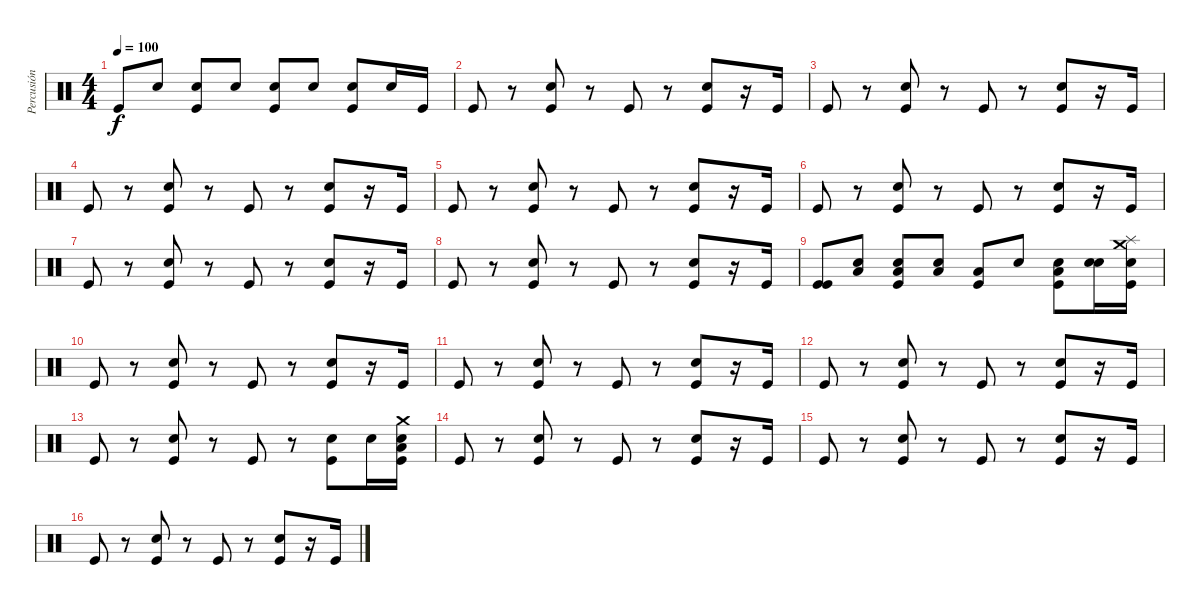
\track ("Percusión" "Percusión") {instrument percussion}
\staff {score}
\articulation defaults
\ts (4 4)
\tempo 100
\clef neutral
\ks c "Kick (hit)".8{dy f} "Electric Snare (hit)".8
("Kick (hit)" "Electric Snare (hit)").8 "Electric Snare (hit)".8 ("Kick (hit)" "Electric Snare (hit)").8 "Electric Snare (hit)".8 ("Kick (hit)" "Electric Snare (hit)").8 "Electric Snare (hit)".16 "Kick (hit)".16 |
"Kick (hit)".8 r.8 ("Kick (hit)" "Electric Snare (hit)").8 r.8 "Kick (hit)".8 r.8 ("Kick (hit)" "Electric Snare (hit)").8 r.16 "Kick (hit)".16 |
"Kick (hit)".8 r.8 ("Kick (hit)" "Electric Snare (hit)").8 r.8 "Kick (hit)".8 r.8 ("Kick (hit)" "Electric Snare (hit)").8 r.16 "Kick (hit)".16 |
"Kick (hit)".8 r.8 ("Kick (hit)" "Electric Snare (hit)").8 r.8 "Kick (hit)".8 r.8 ("Kick (hit)" "Electric Snare (hit)").8 r.16 "Kick (hit)".16 |
"Kick (hit)".8 r.8 ("Kick (hit)" "Electric Snare (hit)").8 r.8 "Kick (hit)".8 r.8 ("Kick (hit)" "Electric Snare (hit)").8 r.16 "Kick (hit)".16 |
"Kick (hit)".8 r.8 ("Kick (hit)" "Electric Snare (hit)").8 r.8 "Kick (hit)".8 r.8 ("Kick (hit)" "Electric Snare (hit)").8 r.16 "Kick (hit)".16 |
"Kick (hit)".8 r.8 ("Kick (hit)" "Electric Snare (hit)").8 r.8 "Kick (hit)".8 r.8 ("Kick (hit)" "Electric Snare (hit)").8 r.16 "Kick (hit)".16 |
"Kick (hit)".8 r.8 ("Kick (hit)" "Electric Snare (hit)").8 r.8 "Kick (hit)".8 r.8 ("Kick (hit)" "Electric Snare (hit)").8 r.16 "Kick (hit)".16 |
("Kick (hit)" "Kick (hit)").8 ("Low Floor Tom (hit)" "Snare (hit) 2").8 ("Kick (hit)" "Electric Snare (hit)" "Low Floor Tom (hit)").8 ("Low Floor Tom (hit)" "Snare (hit) 2").8 ("Kick (hit)" "Low Floor Tom (hit)").8 "Snare (hit) 2".8 ("Kick (hit)" "Electric Snare (hit)" "Low Floor Tom (hit)").8 ("Electric Snare (hit)" "Snare (hit) 2").16 ("Kick (hit)" "Splash (hit)" "Crash medium (hit)" "Electric Snare (hit)").16 |
"Kick (hit)".8 r.8 ("Kick (hit)" "Electric Snare (hit)").8 r.8 "Kick (hit)".8 r.8 ("Kick (hit)" "Electric Snare (hit)").8 r.16 "Kick (hit)".16 |
"Kick (hit)".8 r.8 ("Kick (hit)" "Electric Snare (hit)").8 r.8 "Kick (hit)".8 r.8 ("Kick (hit)" "Electric Snare (hit)").8 r.16 "Kick (hit)".16 |
"Kick (hit)".8 r.8 ("Kick (hit)" "Electric Snare (hit)").8 r.8 "Kick (hit)".8 r.8 ("Kick (hit)" "Electric Snare (hit)").8 r.16 "Kick (hit)".16 |
"Kick (hit)".8 r.8 ("Kick (hit)" "Electric Snare (hit)").8 r.8 "Kick (hit)".8 r.8 ("Kick (hit)" "Electric Snare (hit)").8 "Snare (hit) 2".16 ("Kick (hit)" "Snare (hit) 2" "Low Floor Tom (hit)" "Crash medium (hit)").16 |
"Kick (hit)".8 r.8 ("Kick (hit)" "Electric Snare (hit)").8 r.8 "Kick (hit)".8 r.8 ("Kick (hit)" "Electric Snare (hit)").8 r.16 "Kick (hit)".16 |
"Kick (hit)".8 r.8 ("Kick (hit)" "Electric Snare (hit)").8 r.8 "Kick (hit)".8 r.8 ("Kick (hit)" "Electric Snare (hit)").8 r.16 "Kick (hit)".16 |
"Kick (hit)".8 r.8 ("Kick (hit)" "Electric Snare (hit)").8 r.8 "Kick (hit)".8 r.8 ("Kick (hit)" "Electric Snare (hit)").8 r.16 "Kick (hit)".16
